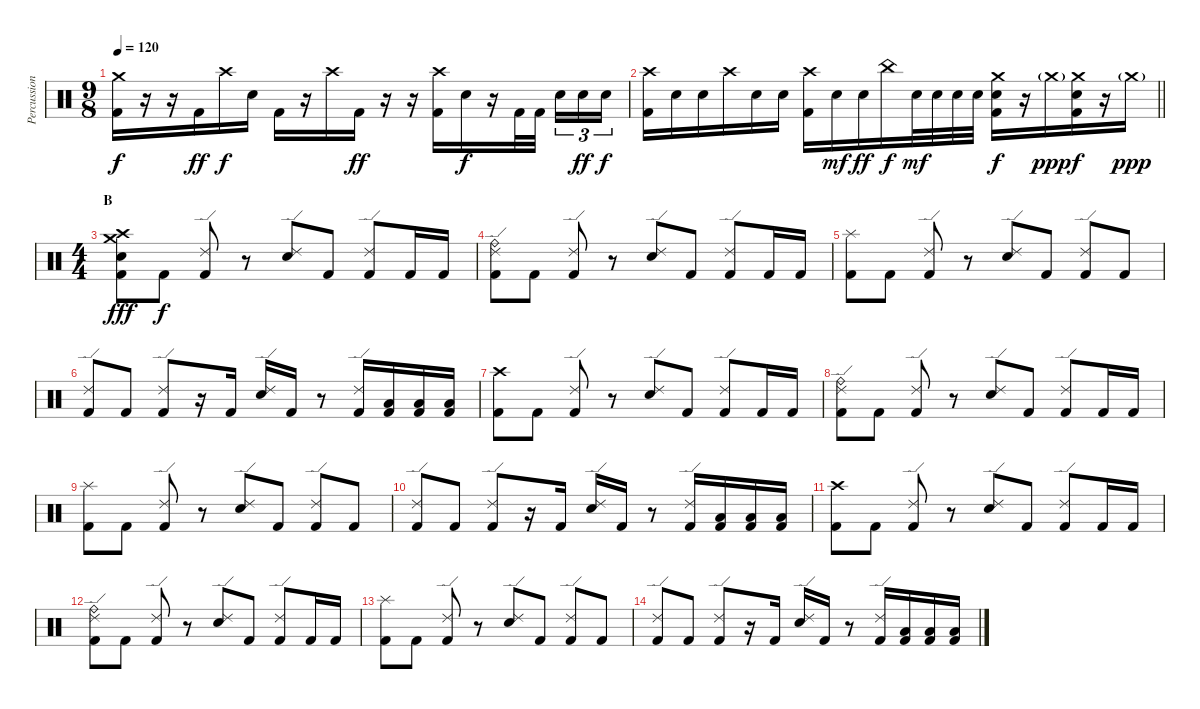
\track ("Percussion" "Percussion") {instrument percussion}
\staff {score}
\articulation defaults
\ts (9 8)
\tempo 120
\clef neutral
\ks c
("Crash medium (hit)" "Kick (hit) 2").16{dy f} r.16 r.16 "Kick (hit) 2".16{dy ff} "Crash high (hit)".16{dy f} "Electric Snare (hit)".16 "Kick (hit) 2".16 r.16 "Crash high (hit)".16 "Kick (hit) 2".16{dy ff} r.16 r.16 ("Crash high (hit)" "Kick (hit) 2").16 "Electric Snare (hit)".16{dy f} r.16 "Kick (hit) 2".32 "Kick (hit) 2".32 "Electric Snare (hit)".16{tu (3 2)} "Electric Snare (hit)".16{tu (3 2) dy ff} "Electric Snare (hit)".16{tu (3 2) dy f} |
\barLineRight lightlight
("Crash high (hit)" "Kick (hit) 2").16 "Electric Snare (hit)".16 "Electric Snare (hit)".16 "Crash high (hit)".16 "Electric Snare (hit)".16 "Electric Snare (hit)".16 ("Crash high (hit)" "Kick (hit) 2").16 "Electric Snare (hit)".16{dy mf} "Electric Snare (hit)".16{dy ff} "China (hit)".16{dy f} "Electric Snare (hit)".32{dy mf} "Electric Snare (hit)".32 "Electric Snare (hit)".32 "Electric Snare (hit)".32 ("Crash medium (hit)" "Electric Snare (hit)" "Kick (hit) 2").16{dy f} r.16 "Crash medium (hit)"{g}.16{dy ppp} ("Crash medium (hit)" "Electric Snare (hit)" "Kick (hit) 2").16{dy f} r.16 "Crash medium (hit)"{g}.16{dy ppp} |
\ts (4 4)
\section ("" "B")
("Crash high (hit)" "Crash medium (hit)" "Electric Snare (hit)" "Kick (hit) 2").8{dy fff} "Kick (hit) 2".8{dy f} ("Ride (edge) 2" "Kick (hit) 2").8 r.8 ("Ride (edge) 2" "Electric Snare (hit)").8 "Kick (hit) 2".8 ("Ride (edge) 2" "Kick (hit) 2").8 "Kick (hit) 2".16 "Kick (hit) 2".16 |
("Ride (edge) 2" "Ride (bell)" "Kick (hit) 2").8 "Kick (hit) 2".8 ("Ride (edge) 2" "Kick (hit) 2").8 r.8 ("Ride (edge) 2" "Electric Snare (hit)").8 "Kick (hit) 2".8 ("Ride (edge) 2" "Kick (hit) 2").8 "Kick (hit) 2".16 "Kick (hit) 2".16 |
("Splash (hit)" "Kick (hit) 2").8 "Kick (hit) 2".8 ("Ride (edge) 2" "Kick (hit) 2").8 r.8 ("Ride (edge) 2" "Electric Snare (hit)").8 "Kick (hit) 2".8 ("Ride (edge) 2" "Kick (hit) 2").8 "Kick (hit) 2".8 |
("Ride (edge) 2" "Kick (hit) 2").8 "Kick (hit) 2".8 ("Ride (edge) 2" "Kick (hit) 2").8 r.16 "Kick (hit) 2".16 ("Ride (edge) 2" "Electric Snare (hit)").16 "Kick (hit) 2".16 r.8 ("Ride (edge) 2" "Kick (hit) 2").16 ("Low Floor Tom (hit)" "Kick (hit) 2").16 ("Low Floor Tom (hit)" "Kick (hit) 2").16 ("Low Floor Tom (hit)" "Kick (hit) 2").16 |
("Crash high (hit)" "Kick (hit) 2").8 "Kick (hit) 2".8 ("Ride (edge) 2" "Kick (hit) 2").8 r.8 ("Ride (edge) 2" "Electric Snare (hit)").8 "Kick (hit) 2".8 ("Ride (edge) 2" "Kick (hit) 2").8 "Kick (hit) 2".16 "Kick (hit) 2".16 |
("Ride (edge) 2" "Ride (bell)" "Kick (hit) 2").8 "Kick (hit) 2".8 ("Ride (edge) 2" "Kick (hit) 2").8 r.8 ("Ride (edge) 2" "Electric Snare (hit)").8 "Kick (hit) 2".8 ("Ride (edge) 2" "Kick (hit) 2").8 "Kick (hit) 2".16 "Kick (hit) 2".16 |
("Splash (hit)" "Kick (hit) 2").8 "Kick (hit) 2".8 ("Ride (edge) 2" "Kick (hit) 2").8 r.8 ("Ride (edge) 2" "Electric Snare (hit)").8 "Kick (hit) 2".8 ("Ride (edge) 2" "Kick (hit) 2").8 "Kick (hit) 2".8 |
("Ride (edge) 2" "Kick (hit) 2").8 "Kick (hit) 2".8 ("Ride (edge) 2" "Kick (hit) 2").8 r.16 "Kick (hit) 2".16 ("Ride (edge) 2" "Electric Snare (hit)").16 "Kick (hit) 2".16 r.8 ("Ride (edge) 2" "Kick (hit) 2").16 ("Low Floor Tom (hit)" "Kick (hit) 2").16 ("Low Floor Tom (hit)" "Kick (hit) 2").16 ("Low Floor Tom (hit)" "Kick (hit) 2").16 |
("Crash high (hit)" "Kick (hit) 2").8 "Kick (hit) 2".8 ("Ride (edge) 2" "Kick (hit) 2").8 r.8 ("Ride (edge) 2" "Electric Snare (hit)").8 "Kick (hit) 2".8 ("Ride (edge) 2" "Kick (hit) 2").8 "Kick (hit) 2".16 "Kick (hit) 2".16 |
("Ride (edge) 2" "Ride (bell)" "Kick (hit) 2").8 "Kick (hit) 2".8 ("Ride (edge) 2" "Kick (hit) 2").8 r.8 ("Ride (edge) 2" "Electric Snare (hit)").8 "Kick (hit) 2".8 ("Ride (edge) 2" "Kick (hit) 2").8 "Kick (hit) 2".16 "Kick (hit) 2".16 |
("Splash (hit)" "Kick (hit) 2").8 "Kick (hit) 2".8 ("Ride (edge) 2" "Kick (hit) 2").8 r.8 ("Ride (edge) 2" "Electric Snare (hit)").8 "Kick (hit) 2".8 ("Ride (edge) 2" "Kick (hit) 2").8 "Kick (hit) 2".8 |
("Ride (edge) 2" "Kick (hit) 2").8 "Kick (hit) 2".8 ("Ride (edge) 2" "Kick (hit) 2").8 r.16 "Kick (hit) 2".16 ("Ride (edge) 2" "Electric Snare (hit)").16 "Kick (hit) 2".16 r.8 ("Ride (edge) 2" "Kick (hit) 2").16 ("Low Floor Tom (hit)" "Kick (hit) 2").16 ("Low Floor Tom (hit)" "Kick (hit) 2").16 ("Low Floor Tom (hit)" "Kick (hit) 2").16
